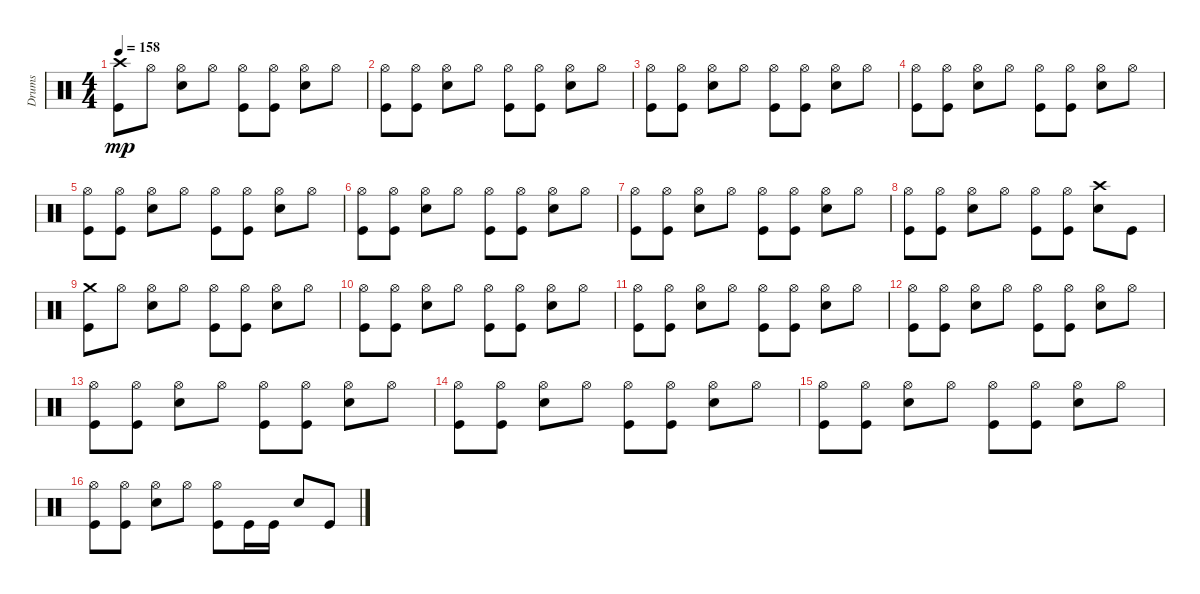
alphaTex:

\track ("Drums" "Drums") {instrument percussion}
\staff {score}
\articulation defaults
\ts (4 4)
\tempo 158
\clef neutral
\ks c
("Crash high (hit)" "Kick (hit)").8{dy mp} "Hi-Hat (open)".8 ("Hi-Hat (open)" "Snare (hit) 2").8 "Hi-Hat (open)".8 ("Hi-Hat (open)" "Kick (hit)").8 ("Hi-Hat (open)" "Kick (hit)").8 ("Hi-Hat (open)" "Snare (hit) 2").8 "Hi-Hat (open)".8 |
("Hi-Hat (open)" "Kick (hit)").8 ("Hi-Hat (open)" "Kick (hit)").8 ("Hi-Hat (open)" "Snare (hit) 2").8 "Hi-Hat (open)".8 ("Hi-Hat (open)" "Kick (hit)").8 ("Hi-Hat (open)" "Kick (hit)").8 ("Hi-Hat (open)" "Snare (hit) 2").8 "Hi-Hat (open)".8 |
("Hi-Hat (open)" "Kick (hit)").8 ("Hi-Hat (open)" "Kick (hit)").8 ("Hi-Hat (open)" "Snare (hit) 2").8 "Hi-Hat (open)".8 ("Hi-Hat (open)" "Kick (hit)").8 ("Hi-Hat (open)" "Kick (hit)").8 ("Hi-Hat (open)" "Snare (hit) 2").8 "Hi-Hat (open)".8 |
("Hi-Hat (open)" "Kick (hit)").8 ("Hi-Hat (open)" "Kick (hit)").8 ("Hi-Hat (open)" "Snare (hit) 2").8 "Hi-Hat (open)".8 ("Hi-Hat (open)" "Kick (hit)").8 ("Hi-Hat (open)" "Kick (hit)").8 ("Hi-Hat (open)" "Snare (hit) 2").8 "Hi-Hat (open)".8 |
("Hi-Hat (open)" "Kick (hit)").8 ("Hi-Hat (open)" "Kick (hit)").8 ("Hi-Hat (open)" "Snare (hit) 2").8 "Hi-Hat (open)".8 ("Hi-Hat (open)" "Kick (hit)").8 ("Hi-Hat (open)" "Kick (hit)").8 ("Hi-Hat (open)" "Snare (hit) 2").8 "Hi-Hat (open)".8 |
("Hi-Hat (open)" "Kick (hit)").8 ("Hi-Hat (open)" "Kick (hit)").8 ("Hi-Hat (open)" "Snare (hit) 2").8 "Hi-Hat (open)".8 ("Hi-Hat (open)" "Kick (hit)").8 ("Hi-Hat (open)" "Kick (hit)").8 ("Hi-Hat (open)" "Snare (hit) 2").8 "Hi-Hat (open)".8 |
("Hi-Hat (open)" "Kick (hit)").8 ("Hi-Hat (open)" "Kick (hit)").8 ("Hi-Hat (open)" "Snare (hit) 2").8 "Hi-Hat (open)".8 ("Hi-Hat (open)" "Kick (hit)").8 ("Hi-Hat (open)" "Kick (hit)").8 ("Hi-Hat (open)" "Snare (hit) 2").8 "Hi-Hat (open)".8 |
("Hi-Hat (open)" "Kick (hit)").8 ("Hi-Hat (open)" "Kick (hit)").8 ("Hi-Hat (open)" "Snare (hit) 2").8 "Hi-Hat (open)".8 ("Hi-Hat (open)" "Kick (hit)").8 ("Hi-Hat (open)" "Kick (hit)").8 ("Crash high (hit)" "Snare (hit) 2").8 "Kick (hit)".8 |
("Crash medium (hit)" "Kick (hit)").8 "Hi-Hat (open)".8 ("Hi-Hat (open)" "Snare (hit) 2").8 "Hi-Hat (open)".8 ("Hi-Hat (open)" "Kick (hit)").8 ("Hi-Hat (open)" "Kick (hit)").8 ("Hi-Hat (open)" "Snare (hit) 2").8 "Hi-Hat (open)".8 |
("Hi-Hat (open)" "Kick (hit)").8 ("Hi-Hat (open)" "Kick (hit)").8 ("Hi-Hat (open)" "Snare (hit) 2").8 "Hi-Hat (open)".8 ("Hi-Hat (open)" "Kick (hit)").8 ("Hi-Hat (open)" "Kick (hit)").8 ("Hi-Hat (open)" "Snare (hit) 2").8 "Hi-Hat (open)".8 |
("Hi-Hat (open)" "Kick (hit)").8 ("Hi-Hat (open)" "Kick (hit)").8 ("Hi-Hat (open)" "Snare (hit) 2").8 "Hi-Hat (open)".8 ("Hi-Hat (open)" "Kick (hit)").8 ("Hi-Hat (open)" "Kick (hit)").8 ("Hi-Hat (open)" "Snare (hit) 2").8 "Hi-Hat (open)".8 |
("Hi-Hat (open)" "Kick (hit)").8 ("Hi-Hat (open)" "Kick (hit)").8 ("Hi-Hat (open)" "Snare (hit) 2").8 "Hi-Hat (open)".8 ("Hi-Hat (open)" "Kick (hit)").8 ("Hi-Hat (open)" "Kick (hit)").8 ("Hi-Hat (open)" "Snare (hit) 2").8 "Hi-Hat (open)".8 |
("Hi-Hat (open)" "Kick (hit)").8 ("Hi-Hat (open)" "Kick (hit)").8 ("Hi-Hat (open)" "Snare (hit) 2").8 "Hi-Hat (open)".8 ("Hi-Hat (open)" "Kick (hit)").8 ("Hi-Hat (open)" "Kick (hit)").8 ("Hi-Hat (open)" "Snare (hit) 2").8 "Hi-Hat (open)".8 |
("Hi-Hat (open)" "Kick (hit)").8 ("Hi-Hat (open)" "Kick (hit)").8 ("Hi-Hat (open)" "Snare (hit) 2").8 "Hi-Hat (open)".8 ("Hi-Hat (open)" "Kick (hit)").8 ("Hi-Hat (open)" "Kick (hit)").8 ("Hi-Hat (open)" "Snare (hit) 2").8 "Hi-Hat (open)".8 |
("Hi-Hat (open)" "Kick (hit)").8 ("Hi-Hat (open)" "Kick (hit)").8 ("Hi-Hat (open)" "Snare (hit) 2").8 "Hi-Hat (open)".8 ("Hi-Hat (open)" "Kick (hit)").8 ("Hi-Hat (open)" "Kick (hit)").8 ("Hi-Hat (open)" "Snare (hit) 2").8 "Hi-Hat (open)".8 |
("Hi-Hat (open)" "Kick (hit)").8 ("Hi-Hat (open)" "Kick (hit)").8 ("Hi-Hat (open)" "Snare (hit) 2").8 "Hi-Hat (open)".8 ("Hi-Hat (open)" "Kick (hit)").8 "Kick (hit)".16 "Kick (hit)".16 "Snare (hit) 2".8 "Kick (hit)".8
